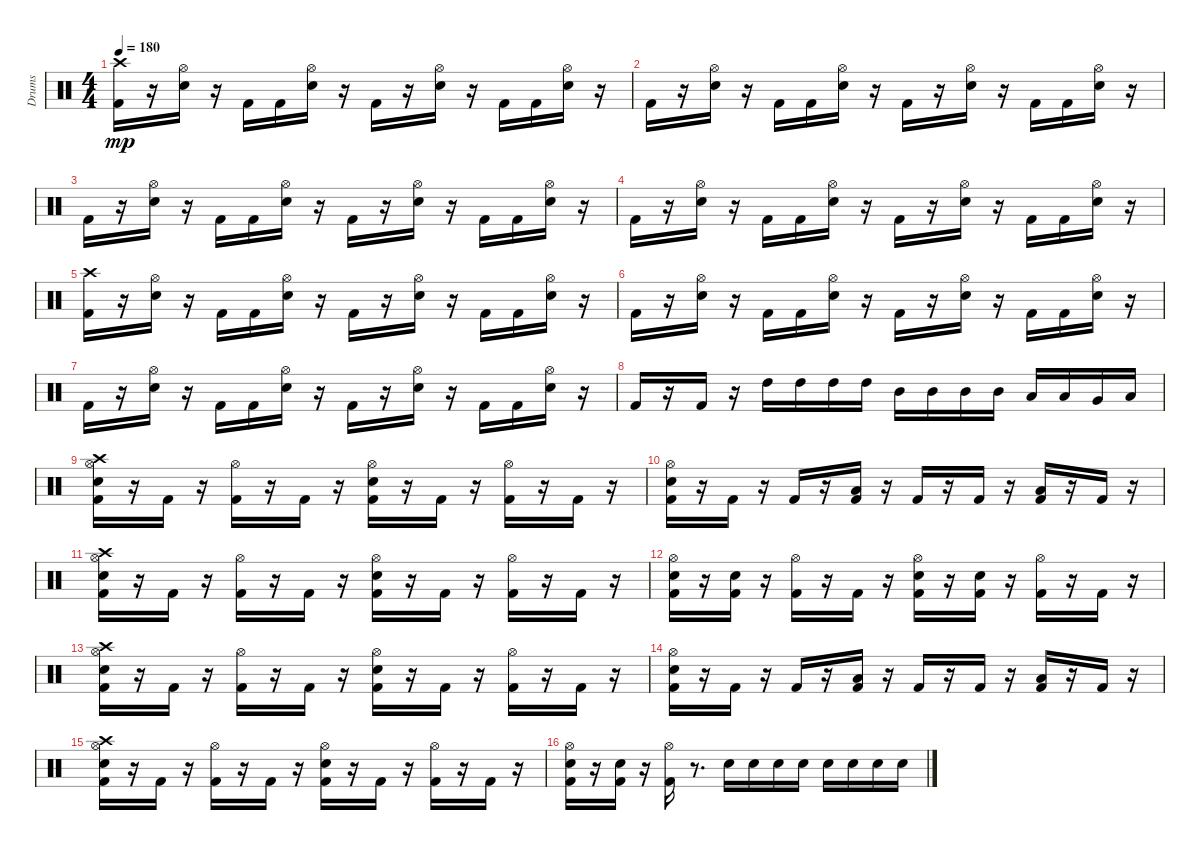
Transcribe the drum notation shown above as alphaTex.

\track ("Drums" "Drums") {instrument percussion}
\staff {score}
\articulation defaults
\ts (4 4)
\tempo 180
\clef neutral
\ks c
("Crash high (hit)" "Kick (hit) 2").16{dy mp} r.16 ("Electric Snare (hit)" "Hi-Hat (open)").16 r.16 "Kick (hit) 2".16 "Kick (hit) 2".16 ("Electric Snare (hit)" "Hi-Hat (open)").16 r.16 "Kick (hit) 2".16 r.16 ("Electric Snare (hit)" "Hi-Hat (open)").16 r.16 "Kick (hit) 2".16 "Kick (hit) 2".16 ("Electric Snare (hit)" "Hi-Hat (open)").16 r.16 |
"Kick (hit) 2".16 r.16 ("Electric Snare (hit)" "Hi-Hat (open)").16 r.16 "Kick (hit) 2".16 "Kick (hit) 2".16 ("Hi-Hat (open)" "Electric Snare (hit)").16 r.16 "Kick (hit) 2".16 r.16 ("Electric Snare (hit)" "Hi-Hat (open)").16 r.16 "Kick (hit) 2".16 "Kick (hit) 2".16 ("Electric Snare (hit)" "Hi-Hat (open)").16 r.16 |
"Kick (hit) 2".16 r.16 ("Electric Snare (hit)" "Hi-Hat (open)").16 r.16 "Kick (hit) 2".16 "Kick (hit) 2".16 ("Electric Snare (hit)" "Hi-Hat (open)").16 r.16 "Kick (hit) 2".16 r.16 ("Hi-Hat (open)" "Electric Snare (hit)").16 r.16 "Kick (hit) 2".16 "Kick (hit) 2".16 ("Hi-Hat (open)" "Electric Snare (hit)").16 r.16 |
"Kick (hit) 2".16 r.16 ("Electric Snare (hit)" "Hi-Hat (open)").16 r.16 "Kick (hit) 2".16 "Kick (hit) 2".16 ("Electric Snare (hit)" "Hi-Hat (open)").16 r.16 "Kick (hit) 2".16 r.16 ("Electric Snare (hit)" "Hi-Hat (open)").16 r.16 "Kick (hit) 2".16 "Kick (hit) 2".16 ("Hi-Hat (open)" "Electric Snare (hit)").16 r.16 |
("Crash high (hit)" "Kick (hit) 2").16 r.16 ("Electric Snare (hit)" "Hi-Hat (open)").16 r.16 "Kick (hit) 2".16 "Kick (hit) 2".16 ("Hi-Hat (open)" "Electric Snare (hit)").16 r.16 "Kick (hit) 2".16 r.16 ("Hi-Hat (open)" "Electric Snare (hit)").16 r.16 "Kick (hit) 2".16 "Kick (hit) 2".16 ("Hi-Hat (open)" "Electric Snare (hit)").16 r.16 |
"Kick (hit) 2".16 r.16 ("Electric Snare (hit)" "Hi-Hat (open)").16 r.16 "Kick (hit) 2".16 "Kick (hit) 2".16 ("Electric Snare (hit)" "Hi-Hat (open)").16 r.16 "Kick (hit) 2".16 r.16 ("Electric Snare (hit)" "Hi-Hat (open)").16 r.16 "Kick (hit) 2".16 "Kick (hit) 2".16 ("Electric Snare (hit)" "Hi-Hat (open)").16 r.16 |
"Kick (hit) 2".16 r.16 ("Electric Snare (hit)" "Hi-Hat (open)").16 r.16 "Kick (hit) 2".16 "Kick (hit) 2".16 ("Electric Snare (hit)" "Hi-Hat (open)").16 r.16 "Kick (hit) 2".16 r.16 ("Electric Snare (hit)" "Hi-Hat (open)").16 r.16 "Kick (hit) 2".16 "Kick (hit) 2".16 ("Hi-Hat (open)" "Electric Snare (hit)").16 r.16 |
"Kick (hit) 2".16 r.16 "Kick (hit) 2".16 r.16 "High Tom (hit)".16 "High Tom (hit)".16 "High Tom (hit)".16 "High Tom (hit)".16 "Mid Tom (hit)".16 "Mid Tom (hit)".16 "Mid Tom (hit)".16 "Mid Tom (hit)".16 "Low Tom (hit)".16 "Low Tom (hit)".16 "Very Low Tom (hit)".16 "Low Floor Tom (hit)".16 |
("Electric Snare (hit)" "Crash high (hit)" "Hi-Hat (open)" "Kick (hit) 2").16 r.16 "Kick (hit) 2".16 r.16 ("Hi-Hat (open)" "Kick (hit) 2").16 r.16 "Kick (hit) 2".16 r.16 ("Electric Snare (hit)" "Hi-Hat (open)" "Kick (hit) 2").16 r.16 "Kick (hit) 2".16 r.16 ("Kick (hit) 2" "Hi-Hat (open)").16 r.16 "Kick (hit) 2".16 r.16 |
("Electric Snare (hit)" "Hi-Hat (open)" "Kick (hit) 2").16 r.16 "Kick (hit) 2".16 r.16 "Kick (hit) 2".16 r.16 ("Kick (hit) 2" "Low Floor Tom (hit)").16 r.16 "Kick (hit) 2".16 r.16 "Kick (hit) 2".16 r.16 ("Low Floor Tom (hit)" "Kick (hit) 2").16 r.16 "Kick (hit) 2".16 r.16 |
("Kick (hit) 2" "Electric Snare (hit)" "Crash high (hit)" "Hi-Hat (open)").16 r.16 "Kick (hit) 2".16 r.16 ("Hi-Hat (open)" "Kick (hit) 2").16 r.16 "Kick (hit) 2".16 r.16 ("Electric Snare (hit)" "Hi-Hat (open)" "Kick (hit) 2").16 r.16 "Kick (hit) 2".16 r.16 ("Hi-Hat (open)" "Kick (hit) 2").16 r.16 "Kick (hit) 2".16 r.16 |
("Kick (hit) 2" "Hi-Hat (open)" "Electric Snare (hit)").16 r.16 ("Electric Snare (hit)" "Kick (hit) 2").16 r.16 ("Kick (hit) 2" "Hi-Hat (open)").16 r.16 "Kick (hit) 2".16 r.16 ("Electric Snare (hit)" "Hi-Hat (open)" "Kick (hit) 2").16 r.16 ("Kick (hit) 2" "Electric Snare (hit)").16 r.16 ("Kick (hit) 2" "Hi-Hat (open)").16 r.16 "Kick (hit) 2".16 r.16 |
("Kick (hit) 2" "Crash high (hit)" "Electric Snare (hit)" "Hi-Hat (open)").16 r.16 "Kick (hit) 2".16 r.16 ("Kick (hit) 2" "Hi-Hat (open)").16 r.16 "Kick (hit) 2".16 r.16 ("Kick (hit) 2" "Electric Snare (hit)" "Hi-Hat (open)").16 r.16 "Kick (hit) 2".16 r.16 ("Hi-Hat (open)" "Kick (hit) 2").16 r.16 "Kick (hit) 2".16 r.16 |
("Kick (hit) 2" "Electric Snare (hit)" "Hi-Hat (open)").16 r.16 "Kick (hit) 2".16 r.16 "Kick (hit) 2".16 r.16 ("Low Floor Tom (hit)" "Kick (hit) 2").16 r.16 "Kick (hit) 2".16 r.16 "Kick (hit) 2".16 r.16 ("Low Floor Tom (hit)" "Kick (hit) 2").16 r.16 "Kick (hit) 2".16 r.16 |
("Crash high (hit)" "Electric Snare (hit)" "Hi-Hat (open)" "Kick (hit) 2").16 r.16 "Kick (hit) 2".16 r.16 ("Hi-Hat (open)" "Kick (hit) 2").16 r.16 "Kick (hit) 2".16 r.16 ("Hi-Hat (open)" "Kick (hit) 2" "Electric Snare (hit)").16 r.16 "Kick (hit) 2".16 r.16 ("Hi-Hat (open)" "Kick (hit) 2").16 r.16 "Kick (hit) 2".16 r.16 |
("Hi-Hat (open)" "Kick (hit) 2" "Electric Snare (hit)").16 r.16 ("Electric Snare (hit)" "Kick (hit) 2").16 r.16 ("Kick (hit) 2" "Hi-Hat (open)").16 r.8{d} "Electric Snare (hit)".16 "Electric Snare (hit)".16 "Electric Snare (hit)".16 "Electric Snare (hit)".16 "Electric Snare (hit)".16 "Electric Snare (hit)".16 "Electric Snare (hit)".16 "Electric Snare (hit)".16
